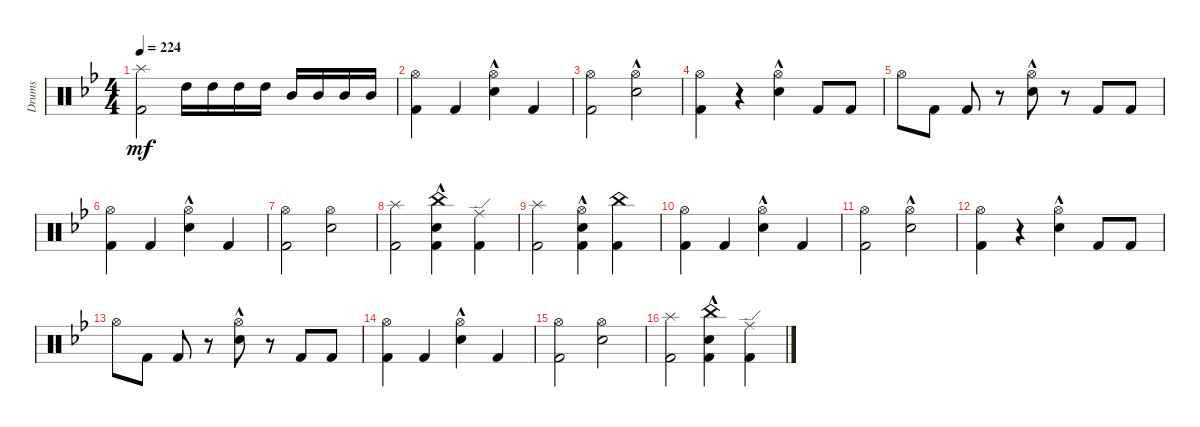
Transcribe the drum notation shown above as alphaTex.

\defaultSystemsLayout 4
\bracketExtendMode groupsimilarinstruments
\otherSystemsTrackNameOrientation horizontal
\track ("Drumkit" "Drums") {instrument percussion}
\staff {score}
\articulation defaults
\ts (4 4)
\tempo 224
\clef neutral
\scale
0.333333
\ks bb
("Splash (hit)"{acc forcenatural} "Kick (hit) 2"{acc forcenatural}).2{dy mf beam Down} "High Tom (hit)"{acc forcenatural}.16{beam Down} "High Tom (hit)"{acc forcenatural}.16{beam Down} "High Tom (hit)"{acc forcenatural}.16{beam Down} "High Tom (hit)"{acc forcenatural}.16{beam Down} "Mid Tom (hit)"{acc forcenatural}.16{beam Up} "Mid Tom (hit)"{acc forcenatural}.16{beam Up} "Mid Tom (hit)"{acc forcenatural}.16{beam Up} "Mid Tom (hit)"{acc forcenatural}.16{beam Up} |
\scale
0.333333 ("Kick (hit) 2"{acc forcenatural} "Hi-Hat (open)"{acc forcenatural}).4{beam Down} "Kick (hit) 2"{acc forcenatural}.4{beam Up} ("Snare (hit) 2"{hac acc forcenatural} "Hi-Hat (open)"{acc forcenatural}).4{beam Down} "Kick (hit) 2"{acc forcenatural}.4{beam Up} |
\scale
0.333333 ("Kick (hit) 2"{acc forcenatural} "Hi-Hat (open)"{acc forcenatural}).2{beam Down} ("Snare (hit) 2"{hac acc forcenatural} "Hi-Hat (open)"{acc forcenatural}).2{beam Down} |
\scale
0.333333 ("Kick (hit) 2"{acc forcenatural} "Hi-Hat (open)"{acc forcenatural}).4{beam Down} r.4{beam Down} ("Snare (hit) 2"{hac acc forcenatural} "Hi-Hat (open)"{acc forcenatural}).4{beam Down} "Kick (hit) 2"{acc forcenatural}.8{beam Up} "Kick (hit) 2"{acc forcenatural}.8{beam Up} |
\scale
0.333333 "Hi-Hat (open)"{acc forcenatural}.8{beam Down} "Kick (hit) 2"{acc forcenatural}.8{beam Down} "Kick (hit) 2"{acc forcenatural}.8{beam Up} r.8{beam Up} ("Snare (hit) 2"{hac acc forcenatural} "Hi-Hat (open)"{acc forcenatural}).8{beam Down} r.8{beam Down} "Kick (hit) 2"{acc forcenatural}.8{beam Up} "Kick (hit) 2"{acc forcenatural}.8{beam Up} |
\scale
0.333333 ("Kick (hit) 2"{acc forcenatural} "Hi-Hat (open)"{acc forcenatural}).4{beam Down} "Kick (hit) 2"{acc forcenatural}.4{beam Up} ("Snare (hit) 2"{hac acc forcenatural} "Hi-Hat (open)"{acc forcenatural}).4{beam Down} "Kick (hit) 2"{acc forcenatural}.4{beam Up} |
\scale
0.333333 ("Kick (hit) 2"{acc forcenatural} "Hi-Hat (open)"{acc forcenatural}).2{beam Down} ("Snare (hit) 2"{acc forcenatural} "Hi-Hat (open)"{acc forcenatural}).2{beam Down} |
\scale
0.333333 ("Splash (hit)"{acc forcenatural} "Kick (hit) 2"{acc forcenatural}).2{beam Down} ("Kick (hit) 2"{acc forcenatural} "Snare (hit) 2"{hac acc forcenatural} "China (hit)"{acc forcenatural}).4{beam Down} ("Kick (hit) 2"{acc forcenatural} "Ride (edge)"{acc forcenatural}).4{beam Down} |
\scale
0.333333 ("Kick (hit) 2"{acc forcenatural} "Splash (hit)"{acc forcenatural}).2{beam Down} ("Kick (hit) 2"{acc forcenatural} "Hi-Hat (open)"{acc forcenatural} "Snare (hit) 2"{hac acc forcenatural}).4{beam Down} ("Kick (hit) 2"{acc forcenatural} "China (hit)"{acc forcenatural}).4{beam Down} |
\scale
0.333333 ("Kick (hit) 2"{acc forcenatural} "Hi-Hat (open)"{acc forcenatural}).4{beam Down} "Kick (hit) 2"{acc forcenatural}.4{beam Up} ("Snare (hit) 2"{hac acc forcenatural} "Hi-Hat (open)"{acc forcenatural}).4{beam Down} "Kick (hit) 2"{acc forcenatural}.4{beam Up} |
\scale
0.333333 ("Kick (hit) 2"{acc forcenatural} "Hi-Hat (open)"{acc forcenatural}).2{beam Down} ("Snare (hit) 2"{hac acc forcenatural} "Hi-Hat (open)"{acc forcenatural}).2{beam Down} |
\scale
0.333333 ("Kick (hit) 2"{acc forcenatural} "Hi-Hat (open)"{acc forcenatural}).4{beam Down} r.4{beam Down} ("Snare (hit) 2"{hac acc forcenatural} "Hi-Hat (open)"{acc forcenatural}).4{beam Down} "Kick (hit) 2"{acc forcenatural}.8{beam Up} "Kick (hit) 2"{acc forcenatural}.8{beam Up} |
\scale
0.333333 "Hi-Hat (open)"{acc forcenatural}.8{beam Down} "Kick (hit) 2"{acc forcenatural}.8{beam Down} "Kick (hit) 2"{acc forcenatural}.8{beam Up} r.8{beam Up} ("Snare (hit) 2"{hac acc forcenatural} "Hi-Hat (open)"{acc forcenatural}).8{beam Down} r.8{beam Down} "Kick (hit) 2"{acc forcenatural}.8{beam Up} "Kick (hit) 2"{acc forcenatural}.8{beam Up} |
\scale
0.333333 ("Kick (hit) 2"{acc forcenatural} "Hi-Hat (open)"{acc forcenatural}).4{beam Down} "Kick (hit) 2"{acc forcenatural}.4{beam Up} ("Snare (hit) 2"{hac acc forcenatural} "Hi-Hat (open)"{acc forcenatural}).4{beam Down} "Kick (hit) 2"{acc forcenatural}.4{beam Up} |
\scale
0.333333 ("Kick (hit) 2"{acc forcenatural} "Hi-Hat (open)"{acc forcenatural}).2{beam Down} ("Snare (hit) 2"{acc forcenatural} "Hi-Hat (open)"{acc forcenatural}).2{beam Down} |
\scale
0.333333 ("Splash (hit)"{acc forcenatural} "Kick (hit) 2"{acc forcenatural}).2{beam Down} ("Kick (hit) 2"{acc forcenatural} "Snare (hit) 2"{hac acc forcenatural} "China (hit)"{acc forcenatural}).4{beam Down} ("Kick (hit) 2"{acc forcenatural} "Ride (edge)"{acc forcenatural}).4{beam Down}
